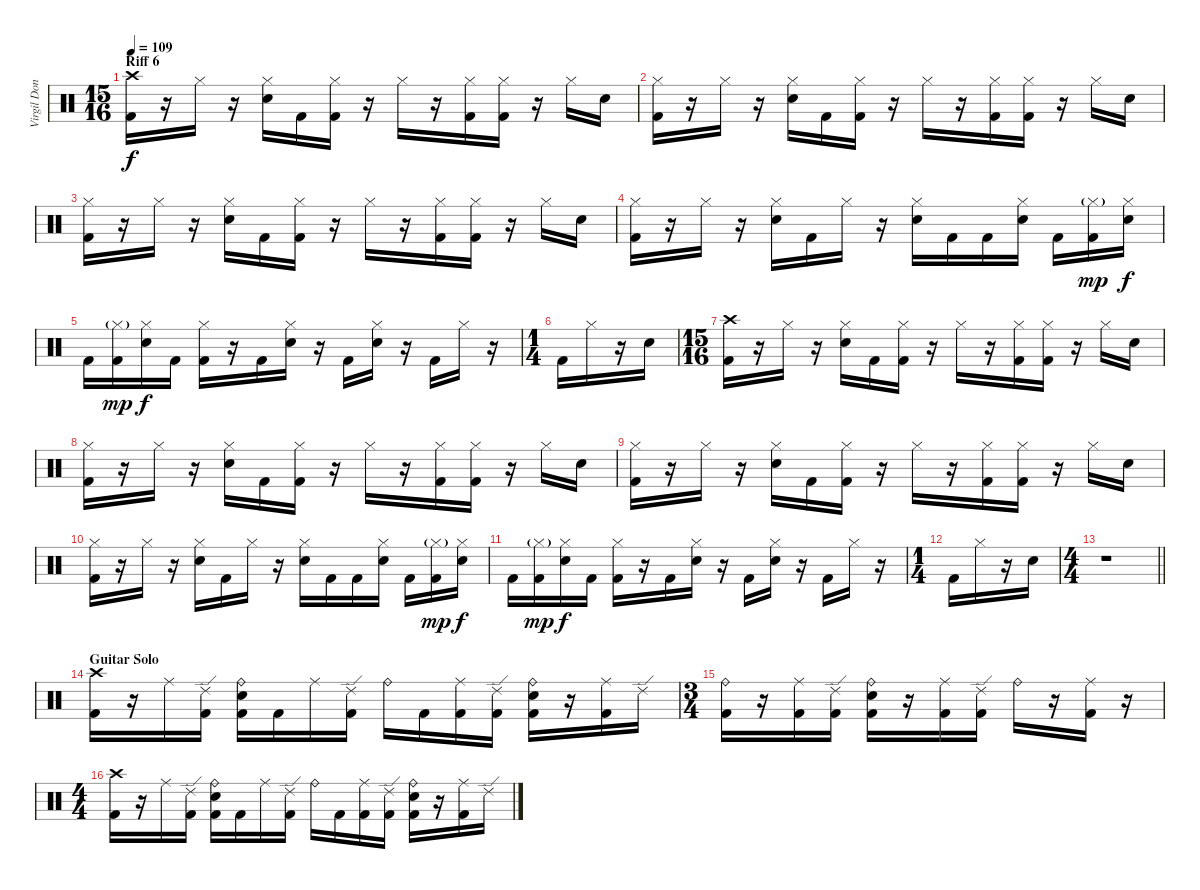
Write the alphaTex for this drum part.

\track ("Virgil Donati" "Virgil Don") {instrument percussion}
\staff {score}
\articulation defaults
\ts (15 16)
\section ("" "Riff 6")
\tempo 109
\clef neutral
\ks c
("Crash high (hit)" "Kick (hit) 2").16{dy f} r.16 "Hi-Hat (closed)".16 r.16 ("Hi-Hat (closed)" "Electric Snare (hit)").16 "Kick (hit) 2".16 ("Hi-Hat (closed)" "Kick (hit) 2").16 r.16 "Hi-Hat (closed)".16 r.16 ("Hi-Hat (closed)" "Kick (hit) 2").16 ("Hi-Hat (closed)" "Kick (hit) 2").16 r.16 "Hi-Hat (closed)".16 "Electric Snare (hit)".16 |
("Hi-Hat (closed)" "Kick (hit) 2").16 r.16 "Hi-Hat (closed)".16 r.16 ("Hi-Hat (closed)" "Electric Snare (hit)").16 "Kick (hit) 2".16 ("Hi-Hat (closed)" "Kick (hit) 2").16 r.16 "Hi-Hat (closed)".16 r.16 ("Hi-Hat (closed)" "Kick (hit) 2").16 ("Hi-Hat (closed)" "Kick (hit) 2").16 r.16 "Hi-Hat (closed)".16 "Electric Snare (hit)".16 |
("Hi-Hat (closed)" "Kick (hit) 2").16 r.16 "Hi-Hat (closed)".16 r.16 ("Hi-Hat (closed)" "Electric Snare (hit)").16 "Kick (hit) 2".16 ("Hi-Hat (closed)" "Kick (hit) 2").16 r.16 "Hi-Hat (closed)".16 r.16 ("Hi-Hat (closed)" "Kick (hit) 2").16 ("Hi-Hat (closed)" "Kick (hit) 2").16 r.16 "Hi-Hat (closed)".16 "Electric Snare (hit)".16 |
("Hi-Hat (closed)" "Kick (hit) 2").16 r.16 "Hi-Hat (closed)".16 r.16 ("Hi-Hat (closed)" "Electric Snare (hit)").16 "Kick (hit) 2".16 "Hi-Hat (closed)".16 r.16 ("Hi-Hat (closed)" "Electric Snare (hit)").16 "Kick (hit) 2".16 "Kick (hit) 2".16 ("Hi-Hat (closed)" "Electric Snare (hit)").16 "Kick (hit) 2".16 ("Hi-Hat (closed)"{g} "Kick (hit) 2").16{dy mp} ("Hi-Hat (closed)" "Electric Snare (hit)").16{dy f} |
"Kick (hit) 2".16 ("Hi-Hat (closed)"{g} "Kick (hit) 2").16{dy mp} ("Hi-Hat (closed)" "Electric Snare (hit)").16{dy f} "Kick (hit) 2".16 ("Hi-Hat (closed)" "Kick (hit) 2").16 r.16 "Kick (hit) 2".16 ("Hi-Hat (closed)" "Electric Snare (hit)").16 r.16 "Kick (hit) 2".16 ("Hi-Hat (closed)" "Electric Snare (hit)").16 r.16 "Kick (hit) 2".16 "Hi-Hat (closed)".16 r.16 |
\ts (1 4)
"Kick (hit) 2".16 "Hi-Hat (closed)".16 r.16 "Electric Snare (hit)".16 |
\ts (15 16)
("Crash high (hit)" "Kick (hit) 2").16 r.16 "Hi-Hat (closed)".16 r.16 ("Hi-Hat (closed)" "Electric Snare (hit)").16 "Kick (hit) 2".16 ("Hi-Hat (closed)" "Kick (hit) 2").16 r.16 "Hi-Hat (closed)".16 r.16 ("Hi-Hat (closed)" "Kick (hit) 2").16 ("Hi-Hat (closed)" "Kick (hit) 2").16 r.16 "Hi-Hat (closed)".16 "Electric Snare (hit)".16 |
("Hi-Hat (closed)" "Kick (hit) 2").16 r.16 "Hi-Hat (closed)".16 r.16 ("Hi-Hat (closed)" "Electric Snare (hit)").16 "Kick (hit) 2".16 ("Hi-Hat (closed)" "Kick (hit) 2").16 r.16 "Hi-Hat (closed)".16 r.16 ("Hi-Hat (closed)" "Kick (hit) 2").16 ("Hi-Hat (closed)" "Kick (hit) 2").16 r.16 "Hi-Hat (closed)".16 "Electric Snare (hit)".16 |
("Hi-Hat (closed)" "Kick (hit) 2").16 r.16 "Hi-Hat (closed)".16 r.16 ("Hi-Hat (closed)" "Electric Snare (hit)").16 "Kick (hit) 2".16 ("Hi-Hat (closed)" "Kick (hit) 2").16 r.16 "Hi-Hat (closed)".16 r.16 ("Hi-Hat (closed)" "Kick (hit) 2").16 ("Hi-Hat (closed)" "Kick (hit) 2").16 r.16 "Hi-Hat (closed)".16 "Electric Snare (hit)".16 |
("Hi-Hat (closed)" "Kick (hit) 2").16 r.16 "Hi-Hat (closed)".16 r.16 ("Hi-Hat (closed)" "Electric Snare (hit)").16 "Kick (hit) 2".16 "Hi-Hat (closed)".16 r.16 ("Hi-Hat (closed)" "Electric Snare (hit)").16 "Kick (hit) 2".16 "Kick (hit) 2".16 ("Hi-Hat (closed)" "Electric Snare (hit)").16 "Kick (hit) 2".16 ("Hi-Hat (closed)"{g} "Kick (hit) 2").16{dy mp} ("Hi-Hat (closed)" "Electric Snare (hit)").16{dy f} |
"Kick (hit) 2".16 ("Hi-Hat (closed)"{g} "Kick (hit) 2").16{dy mp} ("Hi-Hat (closed)" "Electric Snare (hit)").16{dy f} "Kick (hit) 2".16 ("Hi-Hat (closed)" "Kick (hit) 2").16 r.16 "Kick (hit) 2".16 ("Hi-Hat (closed)" "Electric Snare (hit)").16 r.16 "Kick (hit) 2".16 ("Hi-Hat (closed)" "Electric Snare (hit)").16 r.16 "Kick (hit) 2".16 "Hi-Hat (closed)".16 r.16 |
\ts (1 4)
"Kick (hit) 2".16 "Hi-Hat (closed)".16 r.16 "Electric Snare (hit)".16 |
\ts (4 4)
\barLineRight lightlight
r.1 |
\section ("" "Guitar Solo")
("Crash high (hit)" "Kick (hit) 2").16 r.16 "Ride (middle)".16 ("Ride (edge) 2" "Kick (hit) 2").16 ("Ride (bell)" "Electric Snare (hit)" "Kick (hit) 2").16 "Kick (hit) 2".16 "Ride (middle)".16 ("Ride (edge) 2" "Kick (hit) 2").16 "Ride (bell)".16 "Kick (hit) 2".16 ("Ride (middle)" "Kick (hit) 2").16 ("Ride (edge) 2" "Kick (hit) 2").16 ("Ride (bell)" "Electric Snare (hit)" "Kick (hit) 2").16 r.16 ("Ride (middle)" "Kick (hit) 2").16 "Ride (edge) 2".16 |
\ts (3 4)
("Ride (bell)" "Kick (hit) 2").16 r.16 ("Ride (middle)" "Kick (hit) 2").16 ("Ride (edge) 2" "Kick (hit) 2").16 ("Ride (bell)" "Electric Snare (hit)" "Kick (hit) 2").16 r.16 ("Ride (middle)" "Kick (hit) 2").16 ("Ride (edge) 2" "Kick (hit) 2").16 "Ride (bell)".16 r.16 ("Ride (middle)" "Kick (hit) 2").16 r.16 |
\ts (4 4)
("Crash high (hit)" "Kick (hit) 2").16 r.16 "Ride (middle)".16 ("Ride (edge) 2" "Kick (hit) 2").16 ("Ride (bell)" "Electric Snare (hit)" "Kick (hit) 2").16 "Kick (hit) 2".16 "Ride (middle)".16 ("Ride (edge) 2" "Kick (hit) 2").16 "Ride (bell)".16 "Kick (hit) 2".16 ("Ride (middle)" "Kick (hit) 2").16 ("Ride (edge) 2" "Kick (hit) 2").16 ("Ride (bell)" "Electric Snare (hit)" "Kick (hit) 2").16 r.16 ("Ride (middle)" "Kick (hit) 2").16 "Ride (edge) 2".16
